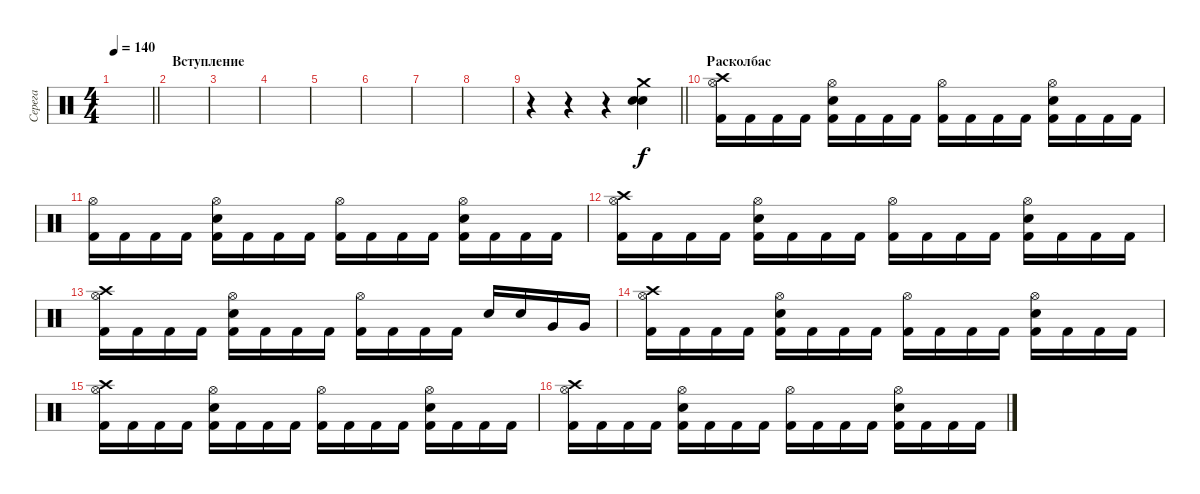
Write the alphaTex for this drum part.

\track ("Серега" "Серега") {instrument percussion}
\staff {score}
\articulation defaults
\ts (4 4)
\tempo 140
\clef neutral
\barLineRight lightlight
\ks c
|
\section ("" "Вступление")
|
|
|
|
|
|
|
\barLineRight lightlight
r.4 r.4 r.4 ("Crash medium (hit)" "Electric Snare (hit)" "Electric Snare (hit)").4 |
\section ("" "Расколбас")
("Kick (hit) 2" "Crash high (hit)" "Hi-Hat (open)").16 "Kick (hit) 2".16 "Kick (hit) 2".16 "Kick (hit) 2".16 ("Kick (hit) 2" "Electric Snare (hit)" "Hi-Hat (open)").16 "Kick (hit) 2".16 "Kick (hit) 2".16 "Kick (hit) 2".16 ("Kick (hit) 2" "Hi-Hat (open)").16 "Kick (hit) 2".16 "Kick (hit) 2".16 "Kick (hit) 2".16 ("Kick (hit) 2" "Electric Snare (hit)" "Hi-Hat (open)").16 "Kick (hit) 2".16 "Kick (hit) 2".16 "Kick (hit) 2".16 |
("Kick (hit) 2" "Hi-Hat (open)").16 "Kick (hit) 2".16 "Kick (hit) 2".16 "Kick (hit) 2".16 ("Kick (hit) 2" "Electric Snare (hit)" "Hi-Hat (open)").16 "Kick (hit) 2".16 "Kick (hit) 2".16 "Kick (hit) 2".16 ("Kick (hit) 2" "Hi-Hat (open)").16 "Kick (hit) 2".16 "Kick (hit) 2".16 "Kick (hit) 2".16 ("Kick (hit) 2" "Electric Snare (hit)" "Hi-Hat (open)").16 "Kick (hit) 2".16 "Kick (hit) 2".16 "Kick (hit) 2".16 |
("Kick (hit) 2" "Crash high (hit)" "Hi-Hat (open)").16 "Kick (hit) 2".16 "Kick (hit) 2".16 "Kick (hit) 2".16 ("Kick (hit) 2" "Electric Snare (hit)" "Hi-Hat (open)").16 "Kick (hit) 2".16 "Kick (hit) 2".16 "Kick (hit) 2".16 ("Kick (hit) 2" "Hi-Hat (open)").16 "Kick (hit) 2".16 "Kick (hit) 2".16 "Kick (hit) 2".16 ("Kick (hit) 2" "Electric Snare (hit)" "Hi-Hat (open)").16 "Kick (hit) 2".16 "Kick (hit) 2".16 "Kick (hit) 2".16 |
("Kick (hit) 2" "Crash high (hit)" "Hi-Hat (open)").16 "Kick (hit) 2".16 "Kick (hit) 2".16 "Kick (hit) 2".16 ("Kick (hit) 2" "Electric Snare (hit)" "Hi-Hat (open)").16 "Kick (hit) 2".16 "Kick (hit) 2".16 "Kick (hit) 2".16 ("Kick (hit) 2" "Hi-Hat (open)").16 "Kick (hit) 2".16 "Kick (hit) 2".16 "Kick (hit) 2".16 "Electric Snare (hit)".16 "Electric Snare (hit)".16 "Very Low Tom (hit)".16 "Very Low Tom (hit)".16 |
("Kick (hit) 2" "Crash high (hit)" "Hi-Hat (open)").16 "Kick (hit) 2".16 "Kick (hit) 2".16 "Kick (hit) 2".16 ("Kick (hit) 2" "Electric Snare (hit)" "Hi-Hat (open)").16 "Kick (hit) 2".16 "Kick (hit) 2".16 "Kick (hit) 2".16 ("Kick (hit) 2" "Hi-Hat (open)").16 "Kick (hit) 2".16 "Kick (hit) 2".16 "Kick (hit) 2".16 ("Kick (hit) 2" "Electric Snare (hit)" "Hi-Hat (open)").16 "Kick (hit) 2".16 "Kick (hit) 2".16 "Kick (hit) 2".16 |
("Kick (hit) 2" "Crash high (hit)" "Hi-Hat (open)").16 "Kick (hit) 2".16 "Kick (hit) 2".16 "Kick (hit) 2".16 ("Kick (hit) 2" "Electric Snare (hit)" "Hi-Hat (open)").16 "Kick (hit) 2".16 "Kick (hit) 2".16 "Kick (hit) 2".16 ("Kick (hit) 2" "Hi-Hat (open)").16 "Kick (hit) 2".16 "Kick (hit) 2".16 "Kick (hit) 2".16 ("Kick (hit) 2" "Electric Snare (hit)" "Hi-Hat (open)").16 "Kick (hit) 2".16 "Kick (hit) 2".16 "Kick (hit) 2".16 |
("Kick (hit) 2" "Crash high (hit)" "Hi-Hat (open)").16 "Kick (hit) 2".16 "Kick (hit) 2".16 "Kick (hit) 2".16 ("Kick (hit) 2" "Electric Snare (hit)" "Hi-Hat (open)").16 "Kick (hit) 2".16 "Kick (hit) 2".16 "Kick (hit) 2".16 ("Kick (hit) 2" "Hi-Hat (open)").16 "Kick (hit) 2".16 "Kick (hit) 2".16 "Kick (hit) 2".16 ("Kick (hit) 2" "Electric Snare (hit)" "Hi-Hat (open)").16 "Kick (hit) 2".16 "Kick (hit) 2".16 "Kick (hit) 2".16
